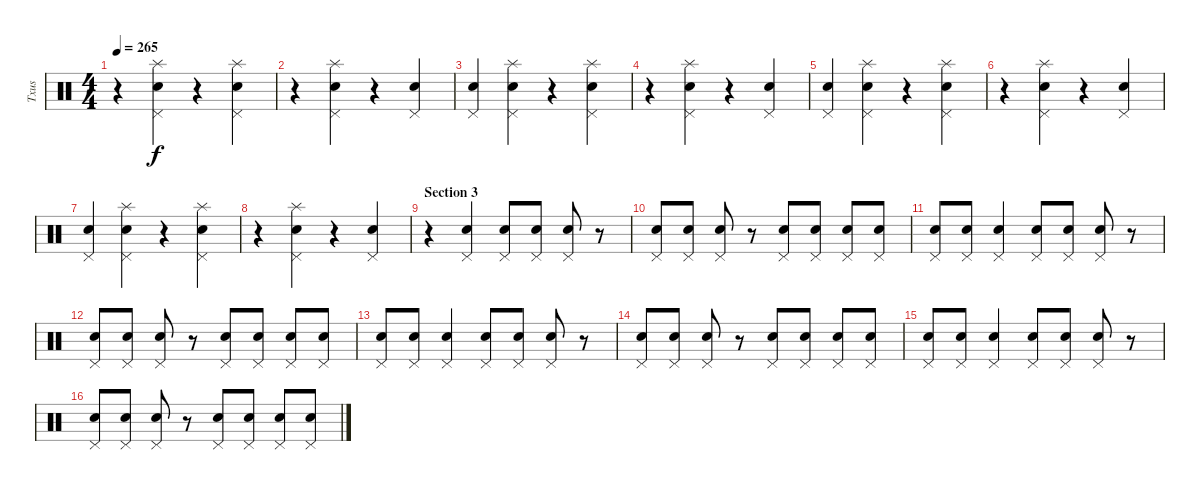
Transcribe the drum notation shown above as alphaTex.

\track ("Txus" "Txus") {instrument percussion}
\staff {score}
\articulation defaults
\ts (4 4)
\tempo 265
\clef neutral
\ks c
r.4{dy f} ("Pedal Hi-Hat (hit)" "Snare (hit) 2" "Splash (hit)").4 r.4 ("Pedal Hi-Hat (hit)" "Snare (hit) 2" "Splash (hit)").4 |
r.4 ("Pedal Hi-Hat (hit)" "Snare (hit) 2" "Splash (hit)").4 r.4 ("Pedal Hi-Hat (hit)" "Snare (hit) 2").4 |
("Pedal Hi-Hat (hit)" "Snare (hit) 2").4 ("Pedal Hi-Hat (hit)" "Snare (hit) 2" "Splash (hit)").4 r.4 ("Pedal Hi-Hat (hit)" "Snare (hit) 2" "Splash (hit)").4 |
r.4 ("Pedal Hi-Hat (hit)" "Snare (hit) 2" "Splash (hit)").4 r.4 ("Pedal Hi-Hat (hit)" "Snare (hit) 2").4 |
("Pedal Hi-Hat (hit)" "Snare (hit) 2").4 ("Pedal Hi-Hat (hit)" "Snare (hit) 2" "Splash (hit)").4 r.4 ("Pedal Hi-Hat (hit)" "Snare (hit) 2" "Splash (hit)").4 |
r.4 ("Pedal Hi-Hat (hit)" "Snare (hit) 2" "Splash (hit)").4 r.4 ("Pedal Hi-Hat (hit)" "Snare (hit) 2").4 |
("Pedal Hi-Hat (hit)" "Snare (hit) 2").4 ("Pedal Hi-Hat (hit)" "Snare (hit) 2" "Splash (hit)").4 r.4 ("Pedal Hi-Hat (hit)" "Snare (hit) 2" "Splash (hit)").4 |
r.4 ("Pedal Hi-Hat (hit)" "Snare (hit) 2" "Splash (hit)").4 r.4 ("Pedal Hi-Hat (hit)" "Snare (hit) 2").4 |
\section ("" "Section 3")
r.4 ("Snare (hit) 2" "Pedal Hi-Hat (hit)").4 ("Snare (hit) 2" "Pedal Hi-Hat (hit)").8 ("Snare (hit) 2" "Pedal Hi-Hat (hit)").8 ("Snare (hit) 2" "Pedal Hi-Hat (hit)").8 r.8 |
("Snare (hit) 2" "Pedal Hi-Hat (hit)").8 ("Snare (hit) 2" "Pedal Hi-Hat (hit)").8 ("Snare (hit) 2" "Pedal Hi-Hat (hit)").8 r.8 ("Snare (hit) 2" "Pedal Hi-Hat (hit)").8 ("Snare (hit) 2" "Pedal Hi-Hat (hit)").8 ("Snare (hit) 2" "Pedal Hi-Hat (hit)").8 ("Snare (hit) 2" "Pedal Hi-Hat (hit)").8 |
("Snare (hit) 2" "Pedal Hi-Hat (hit)").8 ("Snare (hit) 2" "Pedal Hi-Hat (hit)").8 ("Snare (hit) 2" "Pedal Hi-Hat (hit)").4 ("Snare (hit) 2" "Pedal Hi-Hat (hit)").8 ("Snare (hit) 2" "Pedal Hi-Hat (hit)").8 ("Snare (hit) 2" "Pedal Hi-Hat (hit)").8 r.8 |
("Snare (hit) 2" "Pedal Hi-Hat (hit)").8 ("Snare (hit) 2" "Pedal Hi-Hat (hit)").8 ("Snare (hit) 2" "Pedal Hi-Hat (hit)").8 r.8 ("Snare (hit) 2" "Pedal Hi-Hat (hit)").8 ("Snare (hit) 2" "Pedal Hi-Hat (hit)").8 ("Snare (hit) 2" "Pedal Hi-Hat (hit)").8 ("Snare (hit) 2" "Pedal Hi-Hat (hit)").8 |
("Snare (hit) 2" "Pedal Hi-Hat (hit)").8 ("Snare (hit) 2" "Pedal Hi-Hat (hit)").8 ("Snare (hit) 2" "Pedal Hi-Hat (hit)").4 ("Snare (hit) 2" "Pedal Hi-Hat (hit)").8 ("Snare (hit) 2" "Pedal Hi-Hat (hit)").8 ("Snare (hit) 2" "Pedal Hi-Hat (hit)").8 r.8 |
("Snare (hit) 2" "Pedal Hi-Hat (hit)").8 ("Snare (hit) 2" "Pedal Hi-Hat (hit)").8 ("Snare (hit) 2" "Pedal Hi-Hat (hit)").8 r.8 ("Snare (hit) 2" "Pedal Hi-Hat (hit)").8 ("Snare (hit) 2" "Pedal Hi-Hat (hit)").8 ("Snare (hit) 2" "Pedal Hi-Hat (hit)").8 ("Snare (hit) 2" "Pedal Hi-Hat (hit)").8 |
("Snare (hit) 2" "Pedal Hi-Hat (hit)").8 ("Snare (hit) 2" "Pedal Hi-Hat (hit)").8 ("Snare (hit) 2" "Pedal Hi-Hat (hit)").4 ("Snare (hit) 2" "Pedal Hi-Hat (hit)").8 ("Snare (hit) 2" "Pedal Hi-Hat (hit)").8 ("Snare (hit) 2" "Pedal Hi-Hat (hit)").8 r.8 |
("Snare (hit) 2" "Pedal Hi-Hat (hit)").8 ("Snare (hit) 2" "Pedal Hi-Hat (hit)").8 ("Snare (hit) 2" "Pedal Hi-Hat (hit)").8 r.8 ("Snare (hit) 2" "Pedal Hi-Hat (hit)").8 ("Snare (hit) 2" "Pedal Hi-Hat (hit)").8 ("Snare (hit) 2" "Pedal Hi-Hat (hit)").8 ("Snare (hit) 2" "Pedal Hi-Hat (hit)").8
